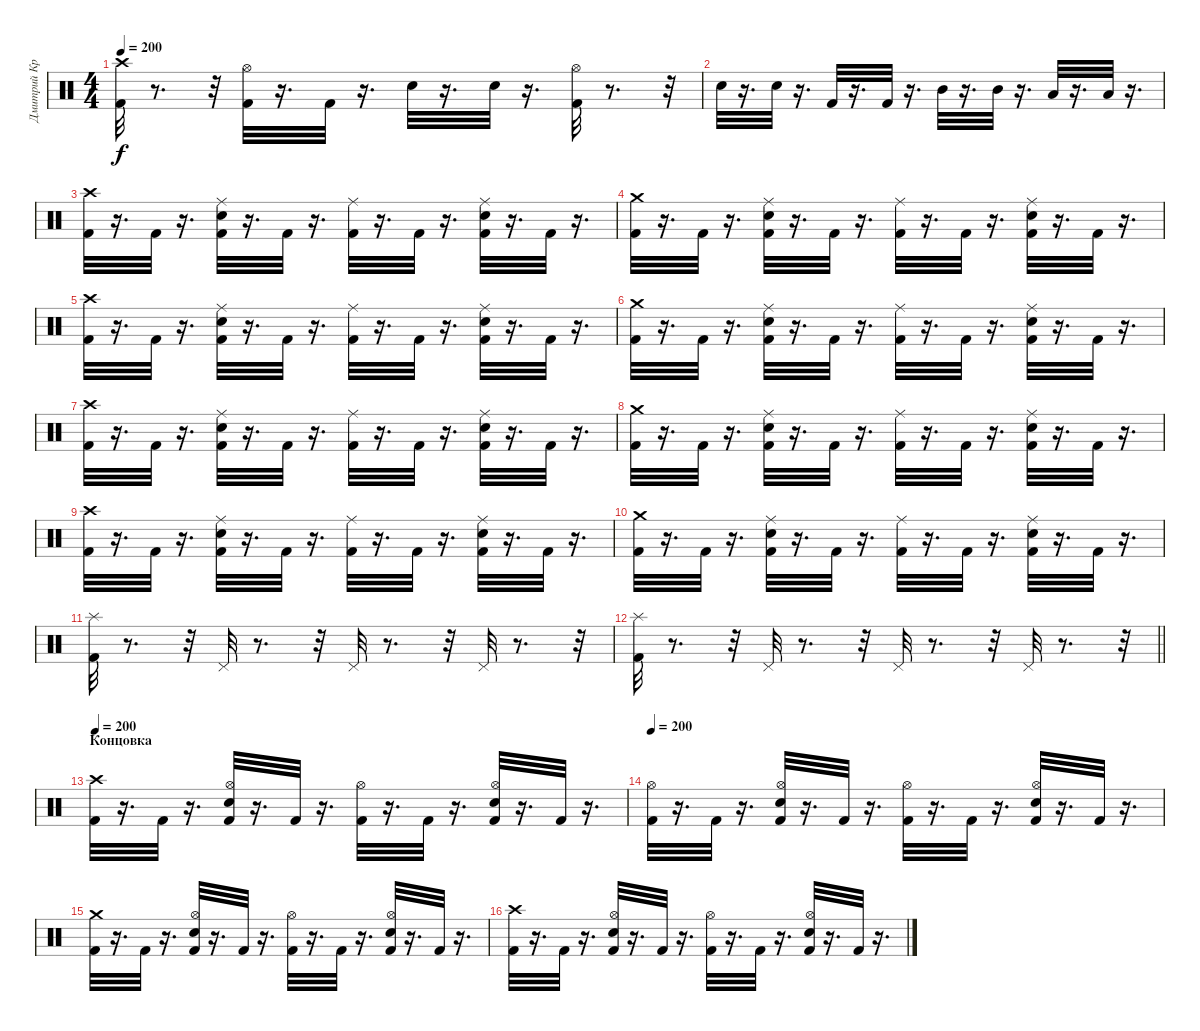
\track ("Дмитрий Кривенков" "Дмитрий Кр") {instrument percussion}
\staff {score}
\articulation defaults
\ts (4 4)
\tempo 200
\clef neutral
\ks c
("Crash high (hit)" "Kick (hit) 2").32{dy f} r.8{d} r.32 ("Hi-Hat (open)" "Kick (hit) 2").32 r.16{d} "Kick (hit) 2".32 r.16{d} "Electric Snare (hit)".32 r.16{d} "Electric Snare (hit)".32 r.16{d} ("Hi-Hat (open)" "Kick (hit) 2").32 r.8{d} r.32 |
"Electric Snare (hit)".32 r.16{d} "Electric Snare (hit)".32 r.16{d} "Kick (hit) 2".32 r.16{d} "Kick (hit) 2".32 r.16{d} "Mid Tom (hit)".32 r.16{d} "Mid Tom (hit)".32 r.16{d} "Low Tom (hit)".32 r.16{d} "Low Tom (hit)".32 r.16{d} |
("Crash high (hit)" "Kick (hit) 2").32 r.16{d} "Kick (hit) 2".32 r.16{d} ("Electric Snare (hit)" "Ride (middle)" "Kick (hit) 2").32 r.16{d} "Kick (hit) 2".32 r.16{d} ("Ride (middle)" "Kick (hit) 2").32 r.16{d} "Kick (hit) 2".32 r.16{d} ("Electric Snare (hit)" "Ride (middle)" "Kick (hit) 2").32 r.16{d} "Kick (hit) 2".32 r.16{d} |
("Kick (hit) 2" "Crash medium (hit)").32 r.16{d} "Kick (hit) 2".32 r.16{d} ("Kick (hit) 2" "Electric Snare (hit)" "Ride (middle)").32 r.16{d} "Kick (hit) 2".32 r.16{d} ("Kick (hit) 2" "Ride (middle)").32 r.16{d} "Kick (hit) 2".32 r.16{d} ("Kick (hit) 2" "Electric Snare (hit)" "Ride (middle)").32 r.16{d} "Kick (hit) 2".32 r.16{d} |
("Crash high (hit)" "Kick (hit) 2").32 r.16{d} "Kick (hit) 2".32 r.16{d} ("Electric Snare (hit)" "Ride (middle)" "Kick (hit) 2").32 r.16{d} "Kick (hit) 2".32 r.16{d} ("Ride (middle)" "Kick (hit) 2").32 r.16{d} "Kick (hit) 2".32 r.16{d} ("Electric Snare (hit)" "Ride (middle)" "Kick (hit) 2").32 r.16{d} "Kick (hit) 2".32 r.16{d} |
("Kick (hit) 2" "Crash medium (hit)").32 r.16{d} "Kick (hit) 2".32 r.16{d} ("Kick (hit) 2" "Electric Snare (hit)" "Ride (middle)").32 r.16{d} "Kick (hit) 2".32 r.16{d} ("Kick (hit) 2" "Ride (middle)").32 r.16{d} "Kick (hit) 2".32 r.16{d} ("Kick (hit) 2" "Electric Snare (hit)" "Ride (middle)").32 r.16{d} "Kick (hit) 2".32 r.16{d} |
("Crash high (hit)" "Kick (hit) 2").32 r.16{d} "Kick (hit) 2".32 r.16{d} ("Electric Snare (hit)" "Ride (middle)" "Kick (hit) 2").32 r.16{d} "Kick (hit) 2".32 r.16{d} ("Ride (middle)" "Kick (hit) 2").32 r.16{d} "Kick (hit) 2".32 r.16{d} ("Electric Snare (hit)" "Ride (middle)" "Kick (hit) 2").32 r.16{d} "Kick (hit) 2".32 r.16{d} |
("Kick (hit) 2" "Crash medium (hit)").32 r.16{d} "Kick (hit) 2".32 r.16{d} ("Kick (hit) 2" "Electric Snare (hit)" "Ride (middle)").32 r.16{d} "Kick (hit) 2".32 r.16{d} ("Kick (hit) 2" "Ride (middle)").32 r.16{d} "Kick (hit) 2".32 r.16{d} ("Kick (hit) 2" "Electric Snare (hit)" "Ride (middle)").32 r.16{d} "Kick (hit) 2".32 r.16{d} |
("Crash high (hit)" "Kick (hit) 2").32 r.16{d} "Kick (hit) 2".32 r.16{d} ("Electric Snare (hit)" "Ride (middle)" "Kick (hit) 2").32 r.16{d} "Kick (hit) 2".32 r.16{d} ("Ride (middle)" "Kick (hit) 2").32 r.16{d} "Kick (hit) 2".32 r.16{d} ("Electric Snare (hit)" "Ride (middle)" "Kick (hit) 2").32 r.16{d} "Kick (hit) 2".32 r.16{d} |
("Kick (hit) 2" "Crash medium (hit)").32 r.16{d} "Kick (hit) 2".32 r.16{d} ("Kick (hit) 2" "Electric Snare (hit)" "Ride (middle)").32 r.16{d} "Kick (hit) 2".32 r.16{d} ("Kick (hit) 2" "Ride (middle)").32 r.16{d} "Kick (hit) 2".32 r.16{d} ("Kick (hit) 2" "Electric Snare (hit)" "Ride (middle)").32 r.16{d} "Kick (hit) 2".32 r.16{d} |
("Splash (hit)" "Kick (hit) 2").32 r.8{d} r.32 "Pedal Hi-Hat (hit)".32 r.8{d} r.32 "Pedal Hi-Hat (hit)".32 r.8{d} r.32 "Pedal Hi-Hat (hit)".32 r.8{d} r.32 |
\barLineRight lightlight
("Splash (hit)" "Kick (hit) 2").32 r.8{d} r.32 "Pedal Hi-Hat (hit)".32 r.8{d} r.32 "Pedal Hi-Hat (hit)".32 r.8{d} r.32 "Pedal Hi-Hat (hit)".32 r.8{d} r.32 |
\section ("" "Концовка")
\tempo 200
("Crash high (hit)" "Kick (hit) 2").32 r.16{d} "Kick (hit) 2".32 r.16{d} ("Hi-Hat (open)" "Electric Snare (hit)" "Kick (hit) 2").32 r.16{d} "Kick (hit) 2".32 r.16{d} ("Hi-Hat (open)" "Kick (hit) 2").32 r.16{d} "Kick (hit) 2".32 r.16{d} ("Hi-Hat (open)" "Electric Snare (hit)" "Kick (hit) 2").32 r.16{d} "Kick (hit) 2".32 r.16{d} |
\tempo 200
("Hi-Hat (open)" "Kick (hit) 2").32 r.16{d} "Kick (hit) 2".32 r.16{d} ("Hi-Hat (open)" "Electric Snare (hit)" "Kick (hit) 2").32 r.16{d} "Kick (hit) 2".32 r.16{d} ("Hi-Hat (open)" "Kick (hit) 2").32 r.16{d} "Kick (hit) 2".32 r.16{d} ("Hi-Hat (open)" "Electric Snare (hit)" "Kick (hit) 2").32 r.16{d} "Kick (hit) 2".32 r.16{d} |
("Kick (hit) 2" "Crash medium (hit)").32 r.16{d} "Kick (hit) 2".32 r.16{d} ("Kick (hit) 2" "Electric Snare (hit)" "Hi-Hat (open)").32 r.16{d} "Kick (hit) 2".32 r.16{d} ("Kick (hit) 2" "Hi-Hat (open)").32 r.16{d} "Kick (hit) 2".32 r.16{d} ("Kick (hit) 2" "Hi-Hat (open)" "Electric Snare (hit)").32 r.16{d} "Kick (hit) 2".32 r.16{d} |
("Kick (hit) 2" "Crash high (hit)").32 r.16{d} "Kick (hit) 2".32 r.16{d} ("Kick (hit) 2" "Electric Snare (hit)" "Hi-Hat (open)").32 r.16{d} "Kick (hit) 2".32 r.16{d} ("Hi-Hat (open)" "Kick (hit) 2").32 r.16{d} "Kick (hit) 2".32 r.16{d} ("Kick (hit) 2" "Electric Snare (hit)" "Hi-Hat (open)").32 r.16{d} "Kick (hit) 2".32 r.16{d}
